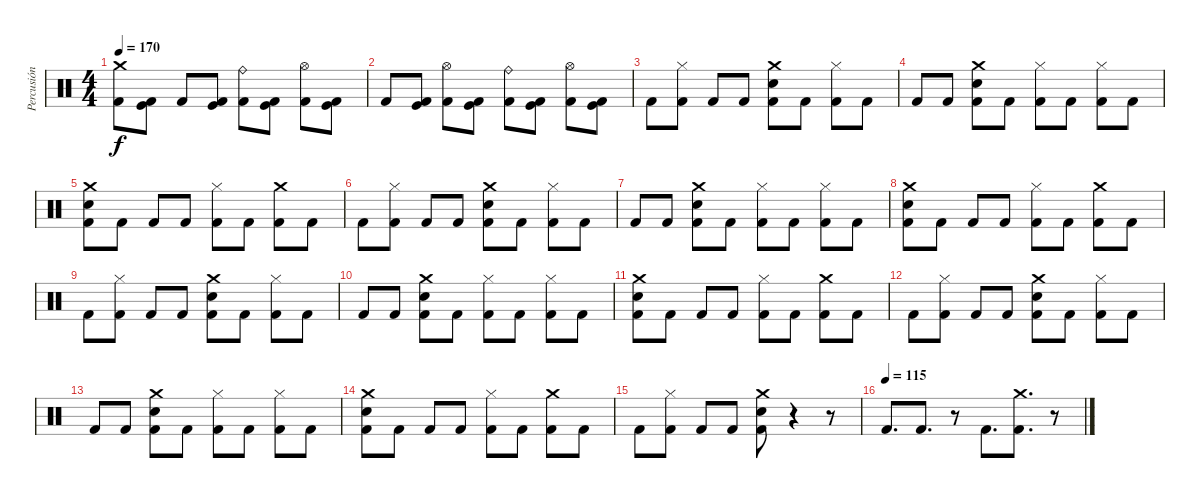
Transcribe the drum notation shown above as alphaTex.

\track ("Percusión" "Percusión") {instrument percussion}
\staff {score}
\articulation defaults
\ts (4 4)
\tempo 170
\clef neutral
\ks c
("Crash medium (hit)" "Kick (hit) 2").8{dy f} ("Kick (hit)" "Kick (hit) 2").8 "Kick (hit) 2".8 ("Kick (hit)" "Kick (hit) 2").8 ("Ride (bell)" "Kick (hit) 2").8 ("Kick (hit)" "Kick (hit) 2").8 ("Hi-Hat (open)" "Kick (hit) 2").8 ("Kick (hit)" "Kick (hit) 2").8 |
"Kick (hit) 2".8 ("Kick (hit)" "Kick (hit) 2").8 ("Hi-Hat (open)" "Kick (hit) 2").8 ("Kick (hit)" "Kick (hit) 2").8 ("Ride (bell)" "Kick (hit) 2").8 ("Kick (hit)" "Kick (hit) 2").8 ("Hi-Hat (open)" "Kick (hit) 2").8 ("Kick (hit)" "Kick (hit) 2").8 |
"Kick (hit) 2".8 ("Hi-Hat (closed)" "Kick (hit) 2").8 "Kick (hit) 2".8 "Kick (hit) 2".8 ("Snare (hit) 2" "Crash medium (hit)" "Kick (hit) 2").8 "Kick (hit) 2".8 ("Hi-Hat (closed)" "Kick (hit) 2").8 "Kick (hit) 2".8 |
"Kick (hit) 2".8 "Kick (hit) 2".8 ("Snare (hit) 2" "Crash medium (hit)" "Kick (hit) 2").8 "Kick (hit) 2".8 ("Hi-Hat (closed)" "Kick (hit) 2").8 "Kick (hit) 2".8 ("Hi-Hat (closed)" "Kick (hit) 2").8 "Kick (hit) 2".8 |
("Snare (hit) 2" "Crash medium (hit)" "Kick (hit) 2").8 "Kick (hit) 2".8 "Kick (hit) 2".8 "Kick (hit) 2".8 ("Hi-Hat (closed)" "Kick (hit) 2").8 "Kick (hit) 2".8 ("Crash medium (hit)" "Kick (hit) 2").8 "Kick (hit) 2".8 |
"Kick (hit) 2".8 ("Hi-Hat (closed)" "Kick (hit) 2").8 "Kick (hit) 2".8 "Kick (hit) 2".8 ("Snare (hit) 2" "Crash medium (hit)" "Kick (hit) 2").8 "Kick (hit) 2".8 ("Hi-Hat (closed)" "Kick (hit) 2").8 "Kick (hit) 2".8 |
"Kick (hit) 2".8 "Kick (hit) 2".8 ("Snare (hit) 2" "Crash medium (hit)" "Kick (hit) 2").8 "Kick (hit) 2".8 ("Hi-Hat (closed)" "Kick (hit) 2").8 "Kick (hit) 2".8 ("Hi-Hat (closed)" "Kick (hit) 2").8 "Kick (hit) 2".8 |
("Snare (hit) 2" "Crash medium (hit)" "Kick (hit) 2").8 "Kick (hit) 2".8 "Kick (hit) 2".8 "Kick (hit) 2".8 ("Hi-Hat (closed)" "Kick (hit) 2").8 "Kick (hit) 2".8 ("Crash medium (hit)" "Kick (hit) 2").8 "Kick (hit) 2".8 |
"Kick (hit) 2".8 ("Hi-Hat (closed)" "Kick (hit) 2").8 "Kick (hit) 2".8 "Kick (hit) 2".8 ("Snare (hit) 2" "Crash medium (hit)" "Kick (hit) 2").8 "Kick (hit) 2".8 ("Hi-Hat (closed)" "Kick (hit) 2").8 "Kick (hit) 2".8 |
"Kick (hit) 2".8 "Kick (hit) 2".8 ("Snare (hit) 2" "Crash medium (hit)" "Kick (hit) 2").8 "Kick (hit) 2".8 ("Hi-Hat (closed)" "Kick (hit) 2").8 "Kick (hit) 2".8 ("Hi-Hat (closed)" "Kick (hit) 2").8 "Kick (hit) 2".8 |
("Snare (hit) 2" "Crash medium (hit)" "Kick (hit) 2").8 "Kick (hit) 2".8 "Kick (hit) 2".8 "Kick (hit) 2".8 ("Hi-Hat (closed)" "Kick (hit) 2").8 "Kick (hit) 2".8 ("Crash medium (hit)" "Kick (hit) 2").8 "Kick (hit) 2".8 |
"Kick (hit) 2".8 ("Hi-Hat (closed)" "Kick (hit) 2").8 "Kick (hit) 2".8 "Kick (hit) 2".8 ("Snare (hit) 2" "Crash medium (hit)" "Kick (hit) 2").8 "Kick (hit) 2".8 ("Hi-Hat (closed)" "Kick (hit) 2").8 "Kick (hit) 2".8 |
"Kick (hit) 2".8 "Kick (hit) 2".8 ("Snare (hit) 2" "Crash medium (hit)" "Kick (hit) 2").8 "Kick (hit) 2".8 ("Hi-Hat (closed)" "Kick (hit) 2").8 "Kick (hit) 2".8 ("Hi-Hat (closed)" "Kick (hit) 2").8 "Kick (hit) 2".8 |
("Snare (hit) 2" "Crash medium (hit)" "Kick (hit) 2").8 "Kick (hit) 2".8 "Kick (hit) 2".8 "Kick (hit) 2".8 ("Hi-Hat (closed)" "Kick (hit) 2").8 "Kick (hit) 2".8 ("Crash medium (hit)" "Kick (hit) 2").8 "Kick (hit) 2".8 |
"Kick (hit) 2".8 ("Hi-Hat (closed)" "Kick (hit) 2").8 "Kick (hit) 2".8 "Kick (hit) 2".8 ("Snare (hit) 2" "Crash medium (hit)" "Kick (hit) 2").8 r.4 r.8 |
\tempo (115)
"Kick (hit) 2".8{d} "Kick (hit) 2".8{d} r.8 "Kick (hit) 2".8{d} ("Crash medium (hit)" "Kick (hit) 2").8{d} r.8
